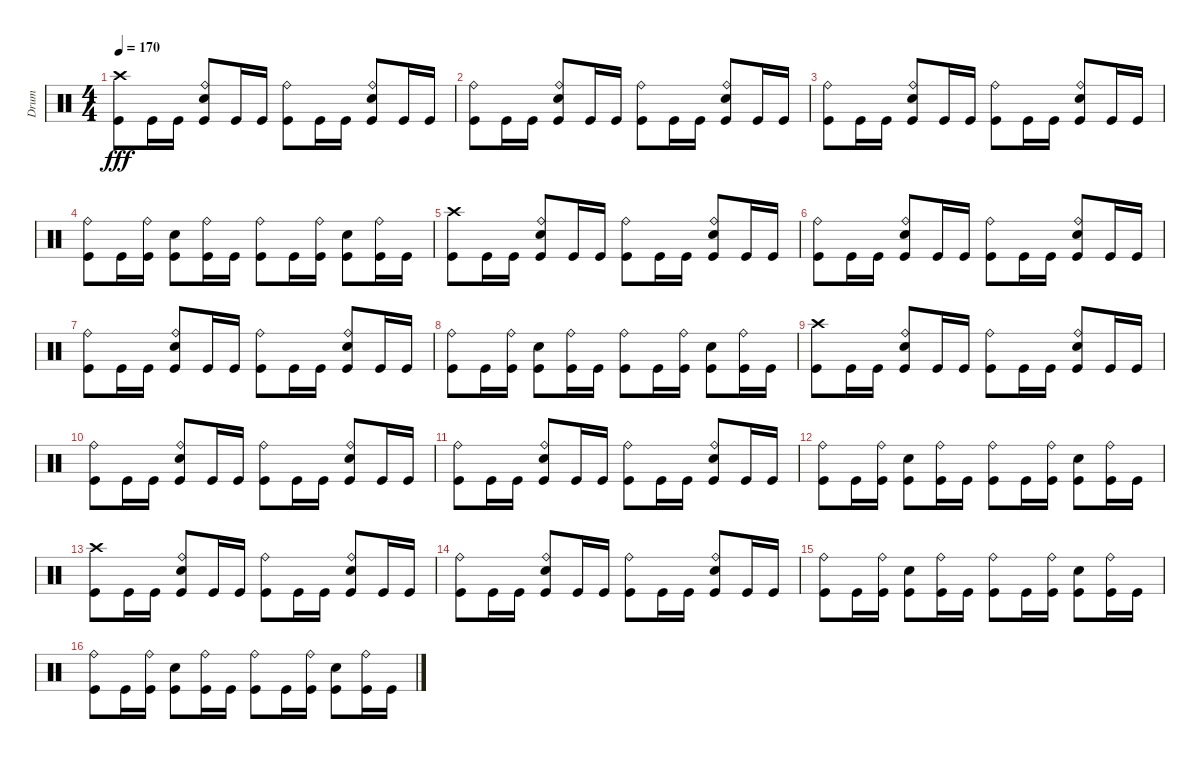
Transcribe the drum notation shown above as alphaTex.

\track ("Drum" "Drum") {instrument percussion}
\staff {score}
\articulation defaults
\ts (4 4)
\tempo 170
\clef neutral
\ks c
("Crash high (hit)" "Kick (hit)").8{dy fff} "Kick (hit)".16 "Kick (hit)".16 ("Ride (bell)" "Snare (hit) 2" "Kick (hit)").8 "Kick (hit)".16 "Kick (hit)".16 ("Ride (bell)" "Kick (hit)").8 "Kick (hit)".16 "Kick (hit)".16 ("Ride (bell)" "Snare (hit) 2" "Kick (hit)").8 "Kick (hit)".16 "Kick (hit)".16 |
("Ride (bell)" "Kick (hit)").8 "Kick (hit)".16 "Kick (hit)".16 ("Ride (bell)" "Snare (hit) 2" "Kick (hit)").8 "Kick (hit)".16 "Kick (hit)".16 ("Ride (bell)" "Kick (hit)").8 "Kick (hit)".16 "Kick (hit)".16 ("Ride (bell)" "Snare (hit) 2" "Kick (hit)").8 "Kick (hit)".16 "Kick (hit)".16 |
("Ride (bell)" "Kick (hit)").8 "Kick (hit)".16 "Kick (hit)".16 ("Ride (bell)" "Snare (hit) 2" "Kick (hit)").8 "Kick (hit)".16 "Kick (hit)".16 ("Ride (bell)" "Kick (hit)").8 "Kick (hit)".16 "Kick (hit)".16 ("Ride (bell)" "Snare (hit) 2" "Kick (hit)").8 "Kick (hit)".16 "Kick (hit)".16 |
("Ride (bell)" "Kick (hit)").8 "Kick (hit)".16 ("Ride (bell)" "Kick (hit)").16 ("Snare (hit) 2" "Kick (hit)").8 ("Ride (bell)" "Kick (hit)").16 "Kick (hit)".16 ("Ride (bell)" "Kick (hit)").8 "Kick (hit)".16 ("Ride (bell)" "Kick (hit)").16 ("Snare (hit) 2" "Kick (hit)").8 ("Ride (bell)" "Kick (hit)").16 "Kick (hit)".16 |
("Crash high (hit)" "Kick (hit)").8 "Kick (hit)".16 "Kick (hit)".16 ("Ride (bell)" "Snare (hit) 2" "Kick (hit)").8 "Kick (hit)".16 "Kick (hit)".16 ("Ride (bell)" "Kick (hit)").8 "Kick (hit)".16 "Kick (hit)".16 ("Ride (bell)" "Snare (hit) 2" "Kick (hit)").8 "Kick (hit)".16 "Kick (hit)".16 |
("Ride (bell)" "Kick (hit)").8 "Kick (hit)".16 "Kick (hit)".16 ("Ride (bell)" "Snare (hit) 2" "Kick (hit)").8 "Kick (hit)".16 "Kick (hit)".16 ("Ride (bell)" "Kick (hit)").8 "Kick (hit)".16 "Kick (hit)".16 ("Ride (bell)" "Snare (hit) 2" "Kick (hit)").8 "Kick (hit)".16 "Kick (hit)".16 |
("Ride (bell)" "Kick (hit)").8 "Kick (hit)".16 "Kick (hit)".16 ("Ride (bell)" "Snare (hit) 2" "Kick (hit)").8 "Kick (hit)".16 "Kick (hit)".16 ("Ride (bell)" "Kick (hit)").8 "Kick (hit)".16 "Kick (hit)".16 ("Ride (bell)" "Snare (hit) 2" "Kick (hit)").8 "Kick (hit)".16 "Kick (hit)".16 |
("Ride (bell)" "Kick (hit)").8 "Kick (hit)".16 ("Ride (bell)" "Kick (hit)").16 ("Snare (hit) 2" "Kick (hit)").8 ("Ride (bell)" "Kick (hit)").16 "Kick (hit)".16 ("Ride (bell)" "Kick (hit)").8 "Kick (hit)".16 ("Ride (bell)" "Kick (hit)").16 ("Snare (hit) 2" "Kick (hit)").8 ("Ride (bell)" "Kick (hit)").16 "Kick (hit)".16 |
("Crash high (hit)" "Kick (hit)").8 "Kick (hit)".16 "Kick (hit)".16 ("Ride (bell)" "Snare (hit) 2" "Kick (hit)").8 "Kick (hit)".16 "Kick (hit)".16 ("Ride (bell)" "Kick (hit)").8 "Kick (hit)".16 "Kick (hit)".16 ("Ride (bell)" "Snare (hit) 2" "Kick (hit)").8 "Kick (hit)".16 "Kick (hit)".16 |
("Ride (bell)" "Kick (hit)").8 "Kick (hit)".16 "Kick (hit)".16 ("Ride (bell)" "Snare (hit) 2" "Kick (hit)").8 "Kick (hit)".16 "Kick (hit)".16 ("Ride (bell)" "Kick (hit)").8 "Kick (hit)".16 "Kick (hit)".16 ("Ride (bell)" "Snare (hit) 2" "Kick (hit)").8 "Kick (hit)".16 "Kick (hit)".16 |
("Ride (bell)" "Kick (hit)").8 "Kick (hit)".16 "Kick (hit)".16 ("Ride (bell)" "Snare (hit) 2" "Kick (hit)").8 "Kick (hit)".16 "Kick (hit)".16 ("Ride (bell)" "Kick (hit)").8 "Kick (hit)".16 "Kick (hit)".16 ("Ride (bell)" "Snare (hit) 2" "Kick (hit)").8 "Kick (hit)".16 "Kick (hit)".16 |
("Ride (bell)" "Kick (hit)").8 "Kick (hit)".16 ("Ride (bell)" "Kick (hit)").16 ("Snare (hit) 2" "Kick (hit)").8 ("Ride (bell)" "Kick (hit)").16 "Kick (hit)".16 ("Ride (bell)" "Kick (hit)").8 "Kick (hit)".16 ("Ride (bell)" "Kick (hit)").16 ("Snare (hit) 2" "Kick (hit)").8 ("Ride (bell)" "Kick (hit)").16 "Kick (hit)".16 |
("Crash high (hit)" "Kick (hit)").8 "Kick (hit)".16 "Kick (hit)".16 ("Ride (bell)" "Snare (hit) 2" "Kick (hit)").8 "Kick (hit)".16 "Kick (hit)".16 ("Ride (bell)" "Kick (hit)").8 "Kick (hit)".16 "Kick (hit)".16 ("Ride (bell)" "Snare (hit) 2" "Kick (hit)").8 "Kick (hit)".16 "Kick (hit)".16 |
("Ride (bell)" "Kick (hit)").8 "Kick (hit)".16 "Kick (hit)".16 ("Ride (bell)" "Snare (hit) 2" "Kick (hit)").8 "Kick (hit)".16 "Kick (hit)".16 ("Ride (bell)" "Kick (hit)").8 "Kick (hit)".16 "Kick (hit)".16 ("Ride (bell)" "Snare (hit) 2" "Kick (hit)").8 "Kick (hit)".16 "Kick (hit)".16 |
("Ride (bell)" "Kick (hit)").8 "Kick (hit)".16 ("Ride (bell)" "Kick (hit)").16 ("Snare (hit) 2" "Kick (hit)").8 ("Ride (bell)" "Kick (hit)").16 "Kick (hit)".16 ("Ride (bell)" "Kick (hit)").8 "Kick (hit)".16 ("Ride (bell)" "Kick (hit)").16 ("Snare (hit) 2" "Kick (hit)").8 ("Ride (bell)" "Kick (hit)").16 "Kick (hit)".16 |
("Ride (bell)" "Kick (hit)").8 "Kick (hit)".16 ("Ride (bell)" "Kick (hit)").16 ("Snare (hit) 2" "Kick (hit)").8 ("Ride (bell)" "Kick (hit)").16 "Kick (hit)".16 ("Ride (bell)" "Kick (hit)").8 "Kick (hit)".16 ("Ride (bell)" "Kick (hit)").16 ("Snare (hit) 2" "Kick (hit)").8 ("Ride (bell)" "Kick (hit)").16 "Kick (hit)".16
